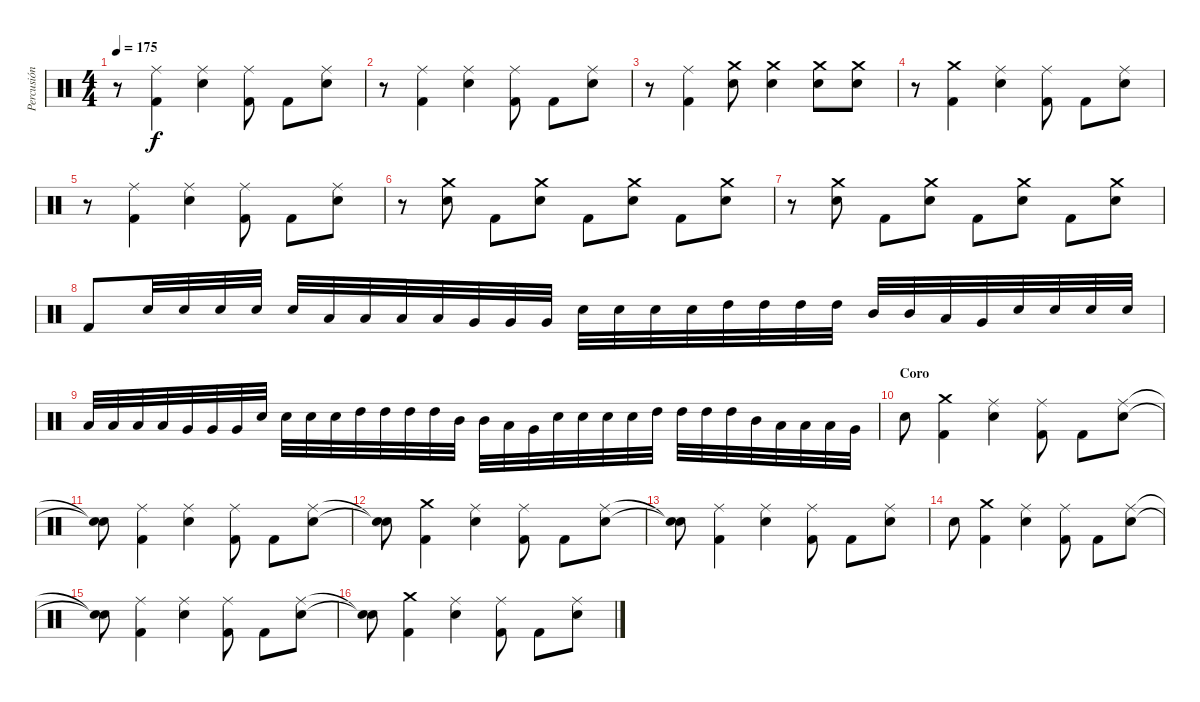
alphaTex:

\track ("Percusión" "Percusión") {instrument percussion}
\staff {score}
\articulation defaults
\ts (4 4)
\tempo 175
\clef neutral
\ks c
r.8{dy f} ("Kick (hit) 2" "Ride (middle)").4 ("Ride (middle)" "Snare (hit) 2").4 ("Kick (hit) 2" "Ride (middle)").8 "Kick (hit) 2".8 ("Ride (middle)" "Snare (hit) 2").8 |
r.8 ("Kick (hit) 2" "Ride (middle)").4 ("Ride (middle)" "Snare (hit) 2").4 ("Kick (hit) 2" "Ride (middle)").8 "Kick (hit) 2".8 ("Ride (middle)" "Snare (hit) 2").8 |
r.8 ("Kick (hit) 2" "Ride (middle)").4 ("Crash medium (hit)" "Snare (hit) 2").8 ("Crash medium (hit)" "Snare (hit) 2").4 ("Crash medium (hit)" "Snare (hit) 2").8 ("Crash medium (hit)" "Snare (hit) 2").8 |
r.8 ("Kick (hit) 2" "Crash medium (hit)").4 ("Ride (middle)" "Snare (hit) 2").4 ("Kick (hit) 2" "Ride (middle)").8 "Kick (hit) 2".8 ("Ride (middle)" "Snare (hit) 2").8 |
r.8 ("Kick (hit) 2" "Ride (middle)").4 ("Ride (middle)" "Snare (hit) 2").4 ("Kick (hit) 2" "Ride (middle)").8 "Kick (hit) 2".8 ("Ride (middle)" "Snare (hit) 2").8 |
r.8 ("Crash medium (hit)" "Snare (hit) 2").8 "Kick (hit) 2".8 ("Crash medium (hit)" "Snare (hit) 2").8 "Kick (hit) 2".8 ("Crash medium (hit)" "Snare (hit) 2").8 "Kick (hit) 2".8 ("Crash medium (hit)" "Snare (hit) 2").8 |
r.8 ("Crash medium (hit)" "Snare (hit) 2").8 "Kick (hit) 2".8 ("Crash medium (hit)" "Snare (hit) 2").8 "Kick (hit) 2".8 ("Crash medium (hit)" "Snare (hit) 2").8 "Kick (hit) 2".8 ("Crash medium (hit)" "Snare (hit) 2").8 |
"Kick (hit) 2".8 "Snare (hit) 2".32 "Snare (hit) 2".32 "Snare (hit) 2".32 "Snare (hit) 2".32 "Snare (hit) 2".32 "Low Tom (hit)".32 "Low Tom (hit)".32 "Low Tom (hit)".32 "Low Tom (hit)".32 "Very Low Tom (hit)".32 "Very Low Tom (hit)".32 "Very Low Tom (hit)".32 "Snare (hit) 2".32 "Snare (hit) 2".32 "Snare (hit) 2".32 "Snare (hit) 2".32 "High Tom (hit)".32 "High Tom (hit)".32 "High Tom (hit)".32 "High Tom (hit)".32 "Mid Tom (hit)".32 "Mid Tom (hit)".32 "Low Tom (hit)".32 "Very Low Tom (hit)".32 "Snare (hit) 2".32 "Snare (hit) 2".32 "Snare (hit) 2".32 "Snare (hit) 2".32 |
"Low Tom (hit)".32 "Low Tom (hit)".32 "Low Tom (hit)".32 "Low Tom (hit)".32 "Very Low Tom (hit)".32 "Very Low Tom (hit)".32 "Very Low Tom (hit)".32 "Snare (hit) 2".32 "Snare (hit) 2".32 "Snare (hit) 2".32 "Snare (hit) 2".32 "High Tom (hit)".32 "High Tom (hit)".32 "High Tom (hit)".32 "High Tom (hit)".32 "Mid Tom (hit)".32 "Mid Tom (hit)".32 "Low Tom (hit)".32 "Very Low Tom (hit)".32 "Snare (hit) 2".32 "Snare (hit) 2".32 "Snare (hit) 2".32 "Snare (hit) 2".32 "High Tom (hit)".32 "High Tom (hit)".32 "High Tom (hit)".32 "High Tom (hit)".32 "Mid Tom (hit)".32 "Low Tom (hit)".32 "Low Tom (hit)".32 "Low Tom (hit)".32 "Very Low Tom (hit)".32 |
\section ("" "Coro")
"Snare (hit) 2".8 ("Crash medium (hit)" "Kick (hit) 2").4 ("Snare (hit) 2" "Ride (middle)").4 ("Ride (middle)" "Kick (hit) 2").8 "Kick (hit) 2".8 ("Ride (middle)" "Snare (hit) 2").8 |
("Snare (hit)"{t} "Snare (hit) 2"{t}).8 ("Ride (middle)" "Kick (hit) 2").4 ("Snare (hit) 2" "Ride (middle)").4 ("Ride (middle)" "Kick (hit) 2").8 "Kick (hit) 2".8 ("Ride (middle)" "Snare (hit) 2").8 |
("Snare (hit)"{t} "Snare (hit) 2"{t}).8 ("Crash medium (hit)" "Kick (hit) 2").4 ("Snare (hit) 2" "Ride (middle)").4 ("Ride (middle)" "Kick (hit) 2").8 "Kick (hit) 2".8 ("Ride (middle)" "Snare (hit) 2").8 |
("Snare (hit)"{t} "Snare (hit) 2"{t}).8 ("Ride (middle)" "Kick (hit) 2").4 ("Snare (hit) 2" "Ride (middle)").4 ("Ride (middle)" "Kick (hit) 2").8 "Kick (hit) 2".8 ("Ride (middle)" "Snare (hit) 2").8 |
"Snare (hit) 2".8 ("Crash medium (hit)" "Kick (hit) 2").4 ("Snare (hit) 2" "Ride (middle)").4 ("Ride (middle)" "Kick (hit) 2").8 "Kick (hit) 2".8 ("Ride (middle)" "Snare (hit) 2").8 |
("Snare (hit)"{t} "Snare (hit) 2"{t}).8 ("Ride (middle)" "Kick (hit) 2").4 ("Snare (hit) 2" "Ride (middle)").4 ("Ride (middle)" "Kick (hit) 2").8 "Kick (hit) 2".8 ("Ride (middle)" "Snare (hit) 2").8 |
("Snare (hit)"{t} "Snare (hit) 2"{t}).8 ("Crash medium (hit)" "Kick (hit) 2").4 ("Snare (hit) 2" "Ride (middle)").4 ("Ride (middle)" "Kick (hit) 2").8 "Kick (hit) 2".8 ("Ride (middle)" "Snare (hit) 2").8
